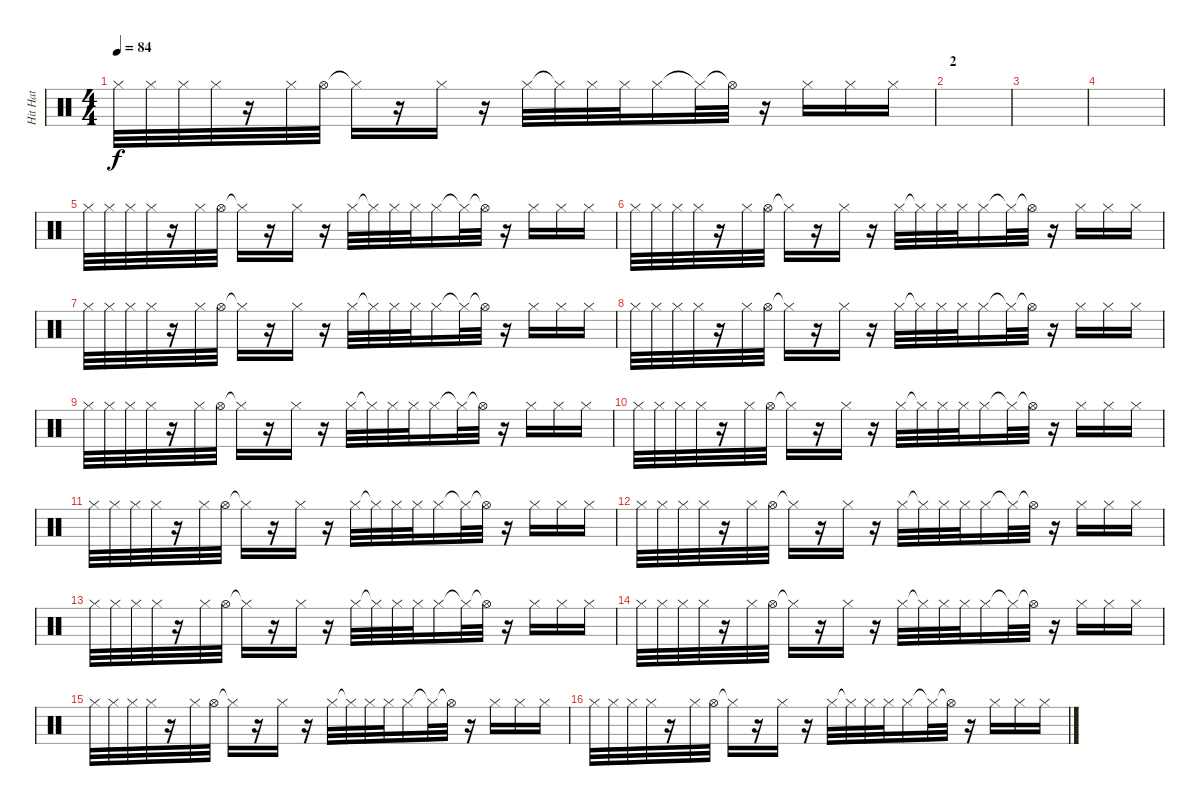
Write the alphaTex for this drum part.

\track ("Hit Hat" "Hit Hat") {instrument percussion}
\staff {score}
\articulation defaults
\ts (4 4)
\tempo 84
\clef neutral
\ks c "Hi-Hat (closed)".32{dy f} "Hi-Hat (closed)".32 "Hi-Hat (closed)".32 "Hi-Hat (closed)".32
r.16 "Hi-Hat (closed)".32 "Hi-Hat (open)".32 "Hi-Hat (closed)"{t}.16 r.16 "Hi-Hat (closed)".16 r.16 "Hi-Hat (closed)".32 "Hi-Hat (closed)"{t}.32 "Hi-Hat (closed)".32 "Hi-Hat (closed)".32 "Hi-Hat (closed)".16 "Hi-Hat (closed)"{t}.32 "Hi-Hat (open)"{t}.32 r.16 "Hi-Hat (closed)".16 "Hi-Hat (closed)".16 "Hi-Hat (closed)".16 |
\section ("" "2")
|
|
|
"Hi-Hat (closed)".32 "Hi-Hat (closed)".32 "Hi-Hat (closed)".32 "Hi-Hat (closed)".32 r.16 "Hi-Hat (closed)".32 "Hi-Hat (open)".32 "Hi-Hat (closed)"{t}.16 r.16 "Hi-Hat (closed)".16 r.16 "Hi-Hat (closed)".32 "Hi-Hat (closed)"{t}.32 "Hi-Hat (closed)".32 "Hi-Hat (closed)".32 "Hi-Hat (closed)".16 "Hi-Hat (closed)"{t}.32 "Hi-Hat (open)"{t}.32 r.16 "Hi-Hat (closed)".16 "Hi-Hat (closed)".16 "Hi-Hat (closed)".16 |
"Hi-Hat (closed)".32 "Hi-Hat (closed)".32 "Hi-Hat (closed)".32 "Hi-Hat (closed)".32 r.16 "Hi-Hat (closed)".32 "Hi-Hat (open)".32 "Hi-Hat (closed)"{t}.16 r.16 "Hi-Hat (closed)".16 r.16 "Hi-Hat (closed)".32 "Hi-Hat (closed)"{t}.32 "Hi-Hat (closed)".32 "Hi-Hat (closed)".32 "Hi-Hat (closed)".16 "Hi-Hat (closed)"{t}.32 "Hi-Hat (open)"{t}.32 r.16 "Hi-Hat (closed)".16 "Hi-Hat (closed)".16 "Hi-Hat (closed)".16 |
"Hi-Hat (closed)".32 "Hi-Hat (closed)".32 "Hi-Hat (closed)".32 "Hi-Hat (closed)".32 r.16 "Hi-Hat (closed)".32 "Hi-Hat (open)".32 "Hi-Hat (closed)"{t}.16 r.16 "Hi-Hat (closed)".16 r.16 "Hi-Hat (closed)".32 "Hi-Hat (closed)"{t}.32 "Hi-Hat (closed)".32 "Hi-Hat (closed)".32 "Hi-Hat (closed)".16 "Hi-Hat (closed)"{t}.32 "Hi-Hat (open)"{t}.32 r.16 "Hi-Hat (closed)".16 "Hi-Hat (closed)".16 "Hi-Hat (closed)".16 |
"Hi-Hat (closed)".32 "Hi-Hat (closed)".32 "Hi-Hat (closed)".32 "Hi-Hat (closed)".32 r.16 "Hi-Hat (closed)".32 "Hi-Hat (open)".32 "Hi-Hat (closed)"{t}.16 r.16 "Hi-Hat (closed)".16 r.16 "Hi-Hat (closed)".32 "Hi-Hat (closed)"{t}.32 "Hi-Hat (closed)".32 "Hi-Hat (closed)".32 "Hi-Hat (closed)".16 "Hi-Hat (closed)"{t}.32 "Hi-Hat (open)"{t}.32 r.16 "Hi-Hat (closed)".16 "Hi-Hat (closed)".16 "Hi-Hat (closed)".16 |
"Hi-Hat (closed)".32 "Hi-Hat (closed)".32 "Hi-Hat (closed)".32 "Hi-Hat (closed)".32 r.16 "Hi-Hat (closed)".32 "Hi-Hat (open)".32 "Hi-Hat (closed)"{t}.16 r.16 "Hi-Hat (closed)".16 r.16 "Hi-Hat (closed)".32 "Hi-Hat (closed)"{t}.32 "Hi-Hat (closed)".32 "Hi-Hat (closed)".32 "Hi-Hat (closed)".16 "Hi-Hat (closed)"{t}.32 "Hi-Hat (open)"{t}.32 r.16 "Hi-Hat (closed)".16 "Hi-Hat (closed)".16 "Hi-Hat (closed)".16 |
"Hi-Hat (closed)".32 "Hi-Hat (closed)".32 "Hi-Hat (closed)".32 "Hi-Hat (closed)".32 r.16 "Hi-Hat (closed)".32 "Hi-Hat (open)".32 "Hi-Hat (closed)"{t}.16 r.16 "Hi-Hat (closed)".16 r.16 "Hi-Hat (closed)".32 "Hi-Hat (closed)"{t}.32 "Hi-Hat (closed)".32 "Hi-Hat (closed)".32 "Hi-Hat (closed)".16 "Hi-Hat (closed)"{t}.32 "Hi-Hat (open)"{t}.32 r.16 "Hi-Hat (closed)".16 "Hi-Hat (closed)".16 "Hi-Hat (closed)".16 |
"Hi-Hat (closed)".32 "Hi-Hat (closed)".32 "Hi-Hat (closed)".32 "Hi-Hat (closed)".32 r.16 "Hi-Hat (closed)".32 "Hi-Hat (open)".32 "Hi-Hat (closed)"{t}.16 r.16 "Hi-Hat (closed)".16 r.16 "Hi-Hat (closed)".32 "Hi-Hat (closed)"{t}.32 "Hi-Hat (closed)".32 "Hi-Hat (closed)".32 "Hi-Hat (closed)".16 "Hi-Hat (closed)"{t}.32 "Hi-Hat (open)"{t}.32 r.16 "Hi-Hat (closed)".16 "Hi-Hat (closed)".16 "Hi-Hat (closed)".16 |
"Hi-Hat (closed)".32 "Hi-Hat (closed)".32 "Hi-Hat (closed)".32 "Hi-Hat (closed)".32 r.16 "Hi-Hat (closed)".32 "Hi-Hat (open)".32 "Hi-Hat (closed)"{t}.16 r.16 "Hi-Hat (closed)".16 r.16 "Hi-Hat (closed)".32 "Hi-Hat (closed)"{t}.32 "Hi-Hat (closed)".32 "Hi-Hat (closed)".32 "Hi-Hat (closed)".16 "Hi-Hat (closed)"{t}.32 "Hi-Hat (open)"{t}.32 r.16 "Hi-Hat (closed)".16 "Hi-Hat (closed)".16 "Hi-Hat (closed)".16 |
"Hi-Hat (closed)".32 "Hi-Hat (closed)".32 "Hi-Hat (closed)".32 "Hi-Hat (closed)".32 r.16 "Hi-Hat (closed)".32 "Hi-Hat (open)".32 "Hi-Hat (closed)"{t}.16 r.16 "Hi-Hat (closed)".16 r.16 "Hi-Hat (closed)".32 "Hi-Hat (closed)"{t}.32 "Hi-Hat (closed)".32 "Hi-Hat (closed)".32 "Hi-Hat (closed)".16 "Hi-Hat (closed)"{t}.32 "Hi-Hat (open)"{t}.32 r.16 "Hi-Hat (closed)".16 "Hi-Hat (closed)".16 "Hi-Hat (closed)".16 |
"Hi-Hat (closed)".32 "Hi-Hat (closed)".32 "Hi-Hat (closed)".32 "Hi-Hat (closed)".32 r.16 "Hi-Hat (closed)".32 "Hi-Hat (open)".32 "Hi-Hat (closed)"{t}.16 r.16 "Hi-Hat (closed)".16 r.16 "Hi-Hat (closed)".32 "Hi-Hat (closed)"{t}.32 "Hi-Hat (closed)".32 "Hi-Hat (closed)".32 "Hi-Hat (closed)".16 "Hi-Hat (closed)"{t}.32 "Hi-Hat (open)"{t}.32 r.16 "Hi-Hat (closed)".16 "Hi-Hat (closed)".16 "Hi-Hat (closed)".16 |
"Hi-Hat (closed)".32 "Hi-Hat (closed)".32 "Hi-Hat (closed)".32 "Hi-Hat (closed)".32 r.16 "Hi-Hat (closed)".32 "Hi-Hat (open)".32 "Hi-Hat (closed)"{t}.16 r.16 "Hi-Hat (closed)".16 r.16 "Hi-Hat (closed)".32 "Hi-Hat (closed)"{t}.32 "Hi-Hat (closed)".32 "Hi-Hat (closed)".32 "Hi-Hat (closed)".16 "Hi-Hat (closed)"{t}.32 "Hi-Hat (open)"{t}.32 r.16 "Hi-Hat (closed)".16 "Hi-Hat (closed)".16 "Hi-Hat (closed)".16 |
"Hi-Hat (closed)".32 "Hi-Hat (closed)".32 "Hi-Hat (closed)".32 "Hi-Hat (closed)".32 r.16 "Hi-Hat (closed)".32 "Hi-Hat (open)".32 "Hi-Hat (closed)"{t}.16 r.16 "Hi-Hat (closed)".16 r.16 "Hi-Hat (closed)".32 "Hi-Hat (closed)"{t}.32 "Hi-Hat (closed)".32 "Hi-Hat (closed)".32 "Hi-Hat (closed)".16 "Hi-Hat (closed)"{t}.32 "Hi-Hat (open)"{t}.32 r.16 "Hi-Hat (closed)".16 "Hi-Hat (closed)".16 "Hi-Hat (closed)".16
